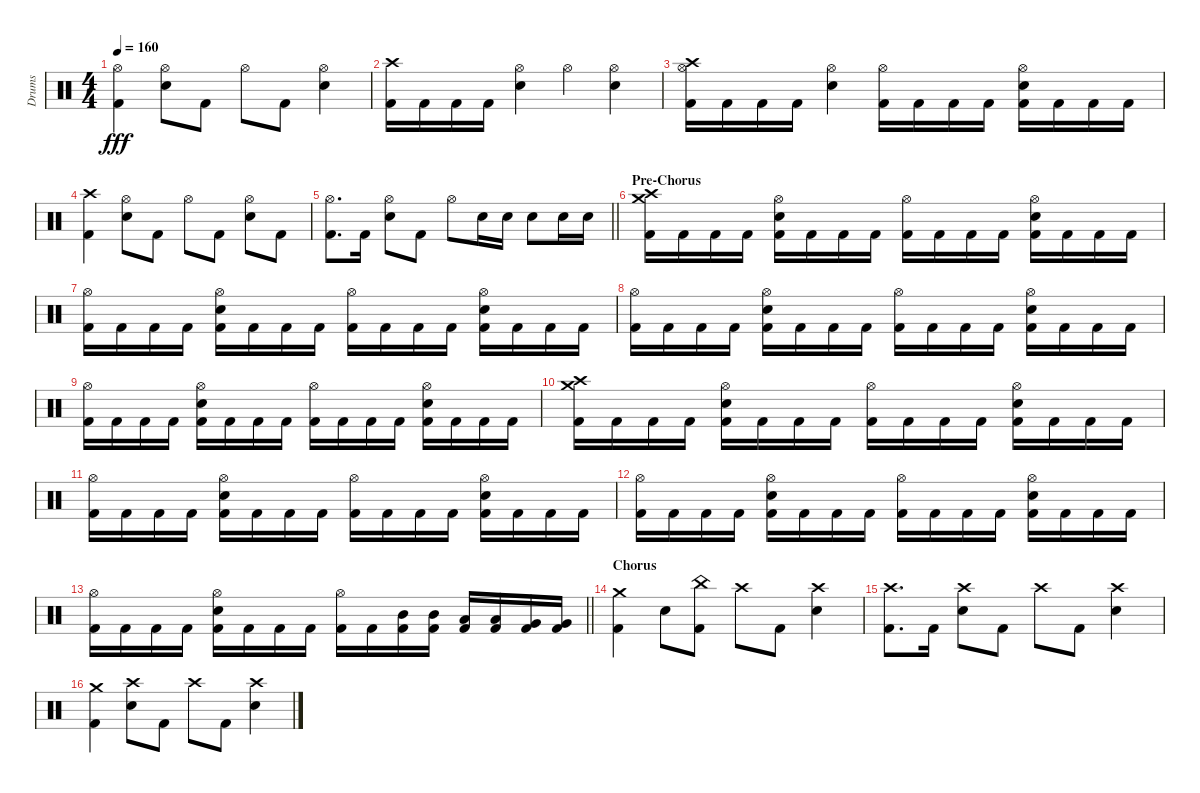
\track ("Drums" "Drums") {instrument percussion}
\staff {score}
\articulation defaults
\ts (4 4)
\tempo 160
\clef neutral
\ks c
("Hi-Hat (open)" "Kick (hit) 2").4{dy fff} ("Snare (hit) 2" "Hi-Hat (open)").8 "Kick (hit) 2".8 "Hi-Hat (open)".8 "Kick (hit) 2".8 ("Snare (hit) 2" "Hi-Hat (open)").4 |
("Crash high (hit)" "Kick (hit) 2").16 "Kick (hit) 2".16 "Kick (hit) 2".16 "Kick (hit) 2".16 ("Snare (hit) 2" "Hi-Hat (open)").4 "Hi-Hat (open)".4 ("Snare (hit) 2" "Hi-Hat (open)").4 |
("Crash high (hit)" "Hi-Hat (open)" "Kick (hit) 2").16 "Kick (hit) 2".16 "Kick (hit) 2".16 "Kick (hit) 2".16 ("Snare (hit) 2" "Hi-Hat (open)").4 ("Hi-Hat (open)" "Kick (hit) 2").16 "Kick (hit) 2".16 "Kick (hit) 2".16 "Kick (hit) 2".16 ("Snare (hit) 2" "Hi-Hat (open)" "Kick (hit) 2").16 "Kick (hit) 2".16 "Kick (hit) 2".16 "Kick (hit) 2".16 |
("Crash high (hit)" "Kick (hit) 2").4 ("Snare (hit) 2" "Hi-Hat (open)").8 "Kick (hit) 2".8 "Hi-Hat (open)".8 "Kick (hit) 2".8 ("Snare (hit) 2" "Hi-Hat (open)").8 "Kick (hit) 2".8 |
\barLineRight lightlight
("Hi-Hat (open)" "Kick (hit) 2").8{d} "Kick (hit) 2".16 ("Snare (hit) 2" "Hi-Hat (open)").8 "Kick (hit) 2".8 "Hi-Hat (open)".8 "Snare (hit) 2".16 "Snare (hit) 2".16 "Snare (hit) 2".8 "Snare (hit) 2".16 "Snare (hit) 2".16 |
\section ("" "Pre-Chorus")
("Crash high (hit)" "Crash medium (hit)" "Kick (hit) 2").16 "Kick (hit) 2".16 "Kick (hit) 2".16 "Kick (hit) 2".16 ("Snare (hit) 2" "Hi-Hat (open)" "Kick (hit) 2").16 "Kick (hit) 2".16 "Kick (hit) 2".16 "Kick (hit) 2".16 ("Hi-Hat (open)" "Kick (hit) 2").16 "Kick (hit) 2".16 "Kick (hit) 2".16 "Kick (hit) 2".16 ("Snare (hit) 2" "Hi-Hat (open)" "Kick (hit) 2").16 "Kick (hit) 2".16 "Kick (hit) 2".16 "Kick (hit) 2".16 |
("Hi-Hat (open)" "Kick (hit) 2").16 "Kick (hit) 2".16 "Kick (hit) 2".16 "Kick (hit) 2".16 ("Snare (hit) 2" "Hi-Hat (open)" "Kick (hit) 2").16 "Kick (hit) 2".16 "Kick (hit) 2".16 "Kick (hit) 2".16 ("Hi-Hat (open)" "Kick (hit) 2").16 "Kick (hit) 2".16 "Kick (hit) 2".16 "Kick (hit) 2".16 ("Snare (hit) 2" "Hi-Hat (open)" "Kick (hit) 2").16 "Kick (hit) 2".16 "Kick (hit) 2".16 "Kick (hit) 2".16 |
("Hi-Hat (open)" "Kick (hit) 2").16 "Kick (hit) 2".16 "Kick (hit) 2".16 "Kick (hit) 2".16 ("Snare (hit) 2" "Hi-Hat (open)" "Kick (hit) 2").16 "Kick (hit) 2".16 "Kick (hit) 2".16 "Kick (hit) 2".16 ("Hi-Hat (open)" "Kick (hit) 2").16 "Kick (hit) 2".16 "Kick (hit) 2".16 "Kick (hit) 2".16 ("Snare (hit) 2" "Hi-Hat (open)" "Kick (hit) 2").16 "Kick (hit) 2".16 "Kick (hit) 2".16 "Kick (hit) 2".16 |
("Hi-Hat (open)" "Kick (hit) 2").16 "Kick (hit) 2".16 "Kick (hit) 2".16 "Kick (hit) 2".16 ("Snare (hit) 2" "Hi-Hat (open)" "Kick (hit) 2").16 "Kick (hit) 2".16 "Kick (hit) 2".16 "Kick (hit) 2".16 ("Hi-Hat (open)" "Kick (hit) 2").16 "Kick (hit) 2".16 "Kick (hit) 2".16 "Kick (hit) 2".16 ("Snare (hit) 2" "Hi-Hat (open)" "Kick (hit) 2").16 "Kick (hit) 2".16 "Kick (hit) 2".16 "Kick (hit) 2".16 |
("Crash high (hit)" "Crash medium (hit)" "Kick (hit) 2").16 "Kick (hit) 2".16 "Kick (hit) 2".16 "Kick (hit) 2".16 ("Snare (hit) 2" "Hi-Hat (open)" "Kick (hit) 2").16 "Kick (hit) 2".16 "Kick (hit) 2".16 "Kick (hit) 2".16 ("Hi-Hat (open)" "Kick (hit) 2").16 "Kick (hit) 2".16 "Kick (hit) 2".16 "Kick (hit) 2".16 ("Snare (hit) 2" "Hi-Hat (open)" "Kick (hit) 2").16 "Kick (hit) 2".16 "Kick (hit) 2".16 "Kick (hit) 2".16 |
("Hi-Hat (open)" "Kick (hit) 2").16 "Kick (hit) 2".16 "Kick (hit) 2".16 "Kick (hit) 2".16 ("Snare (hit) 2" "Hi-Hat (open)" "Kick (hit) 2").16 "Kick (hit) 2".16 "Kick (hit) 2".16 "Kick (hit) 2".16 ("Hi-Hat (open)" "Kick (hit) 2").16 "Kick (hit) 2".16 "Kick (hit) 2".16 "Kick (hit) 2".16 ("Snare (hit) 2" "Hi-Hat (open)" "Kick (hit) 2").16 "Kick (hit) 2".16 "Kick (hit) 2".16 "Kick (hit) 2".16 |
("Hi-Hat (open)" "Kick (hit) 2").16 "Kick (hit) 2".16 "Kick (hit) 2".16 "Kick (hit) 2".16 ("Snare (hit) 2" "Hi-Hat (open)" "Kick (hit) 2").16 "Kick (hit) 2".16 "Kick (hit) 2".16 "Kick (hit) 2".16 ("Hi-Hat (open)" "Kick (hit) 2").16 "Kick (hit) 2".16 "Kick (hit) 2".16 "Kick (hit) 2".16 ("Snare (hit) 2" "Hi-Hat (open)" "Kick (hit) 2").16 "Kick (hit) 2".16 "Kick (hit) 2".16 "Kick (hit) 2".16 |
\barLineRight lightlight
("Hi-Hat (open)" "Kick (hit) 2").16 "Kick (hit) 2".16 "Kick (hit) 2".16 "Kick (hit) 2".16 ("Snare (hit) 2" "Hi-Hat (open)" "Kick (hit) 2").16 "Kick (hit) 2".16 "Kick (hit) 2".16 "Kick (hit) 2".16 ("Hi-Hat (open)" "Kick (hit) 2").16 "Kick (hit) 2".16 ("Mid Tom (hit)" "Kick (hit) 2").16 ("Mid Tom (hit)" "Kick (hit) 2").16 ("Low Tom (hit)" "Kick (hit) 2").16 ("Low Tom (hit)" "Kick (hit) 2").16 ("Very Low Tom (hit)" "Kick (hit) 2").16 ("Very Low Tom (hit)" "Kick (hit) 2").16 |
\section ("" "Chorus")
("Crash medium (hit)" "Kick (hit) 2").4 "Snare (hit) 2".8 ("China (hit)" "Kick (hit) 2").8 "Crash high (hit)".8 "Kick (hit) 2".8 ("Crash high (hit)" "Snare (hit) 2").4 |
("Crash high (hit)" "Kick (hit) 2").8{d} "Kick (hit) 2".16 ("Crash high (hit)" "Snare (hit) 2").8 "Kick (hit) 2".8 "Crash high (hit)".8 "Kick (hit) 2".8 ("Crash high (hit)" "Snare (hit) 2").4 |
("Crash medium (hit)" "Kick (hit) 2").4 ("Crash high (hit)" "Snare (hit) 2").8 "Kick (hit) 2".8 "Crash high (hit)".8 "Kick (hit) 2".8 ("Crash high (hit)" "Snare (hit) 2").4
